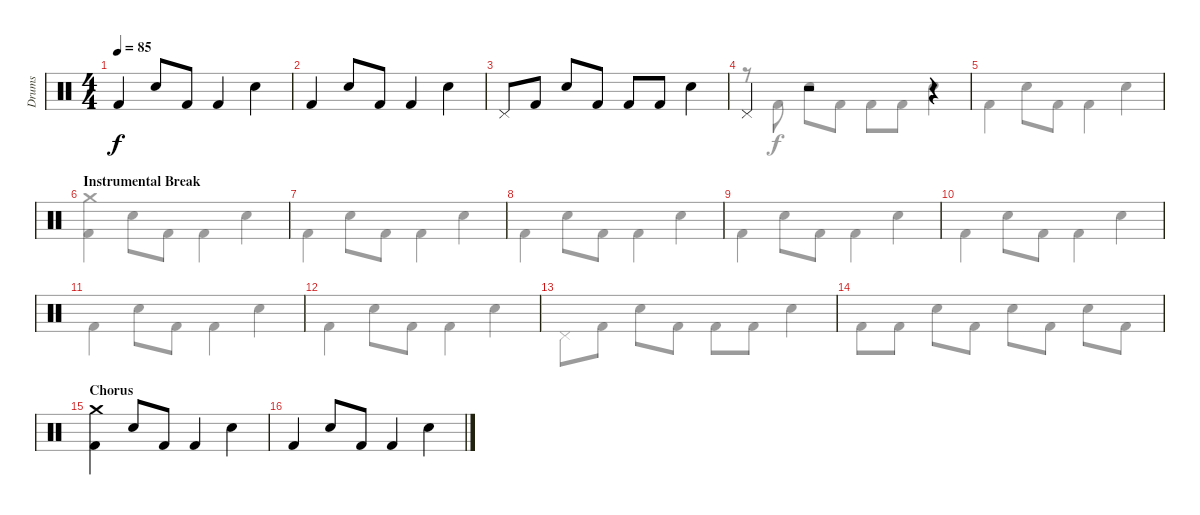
\track ("Drums" "Drums") {instrument percussion}
\staff {score}
\articulation defaults
\voice
\ts (4 4)
\tempo 85
\clef neutral
\ks c "Kick (hit) 2".4{dy f} "Snare (hit) 2".8 "Kick (hit) 2".8 "Kick (hit) 2".4 "Snare (hit) 2".4
|
"Kick (hit) 2".4 "Snare (hit) 2".8 "Kick (hit) 2".8 "Kick (hit) 2".4 "Snare (hit) 2".4 |
"Pedal Hi-Hat (hit)".8 "Kick (hit) 2".8 "Snare (hit) 2".8 "Kick (hit) 2".8 "Kick (hit) 2".8 "Kick (hit) 2".8 "Snare (hit) 2".4 |
"Pedal Hi-Hat (hit)".4 r.2 r.4 |
|
\section ("" "Instrumental Break")
|
|
|
|
|
|
|
|
|
\section ("" "Chorus")
("Crash medium (hit)" "Kick (hit) 2").4 "Snare (hit) 2".8 "Kick (hit) 2".8 "Kick (hit) 2".4 "Snare (hit) 2".4 |
"Kick (hit) 2".4 "Snare (hit) 2".8 "Kick (hit) 2".8 "Kick (hit) 2".4 "Snare (hit) 2".4
\voice
\clef neutral
\ottava regular
\simile none
\ks c
|
|
|
r.8 "Kick (hit) 2".8 "Snare (hit) 2".8 "Kick (hit) 2".8 "Kick (hit) 2".8 "Kick (hit) 2".8 "Snare (hit) 2".4 |
"Kick (hit) 2".4 "Snare (hit) 2".8 "Kick (hit) 2".8 "Kick (hit) 2".4 "Snare (hit) 2".4 |
("Crash medium (hit)" "Kick (hit) 2").4 "Snare (hit) 2".8 "Kick (hit) 2".8 "Kick (hit) 2".4 "Snare (hit) 2".4 |
"Kick (hit) 2".4 "Snare (hit) 2".8 "Kick (hit) 2".8 "Kick (hit) 2".4 "Snare (hit) 2".4 |
"Kick (hit) 2".4 "Snare (hit) 2".8 "Kick (hit) 2".8 "Kick (hit) 2".4 "Snare (hit) 2".4 |
"Kick (hit) 2".4 "Snare (hit) 2".8 "Kick (hit) 2".8 "Kick (hit) 2".4 "Snare (hit) 2".4 |
"Kick (hit) 2".4 "Snare (hit) 2".8 "Kick (hit) 2".8 "Kick (hit) 2".4 "Snare (hit) 2".4 |
"Kick (hit) 2".4 "Snare (hit) 2".8 "Kick (hit) 2".8 "Kick (hit) 2".4 "Snare (hit) 2".4 |
"Kick (hit) 2".4 "Snare (hit) 2".8 "Kick (hit) 2".8 "Kick (hit) 2".4 "Snare (hit) 2".4 |
"Pedal Hi-Hat (hit)".8 "Kick (hit) 2".8 "Snare (hit) 2".8 "Kick (hit) 2".8 "Kick (hit) 2".8 "Kick (hit) 2".8 "Snare (hit) 2".4 |
"Kick (hit) 2".8 "Kick (hit) 2".8 "Snare (hit) 2".8 "Kick (hit) 2".8 "Snare (hit) 2".8 "Kick (hit) 2".8 "Snare (hit) 2".8 "Kick (hit) 2".8 |
|
